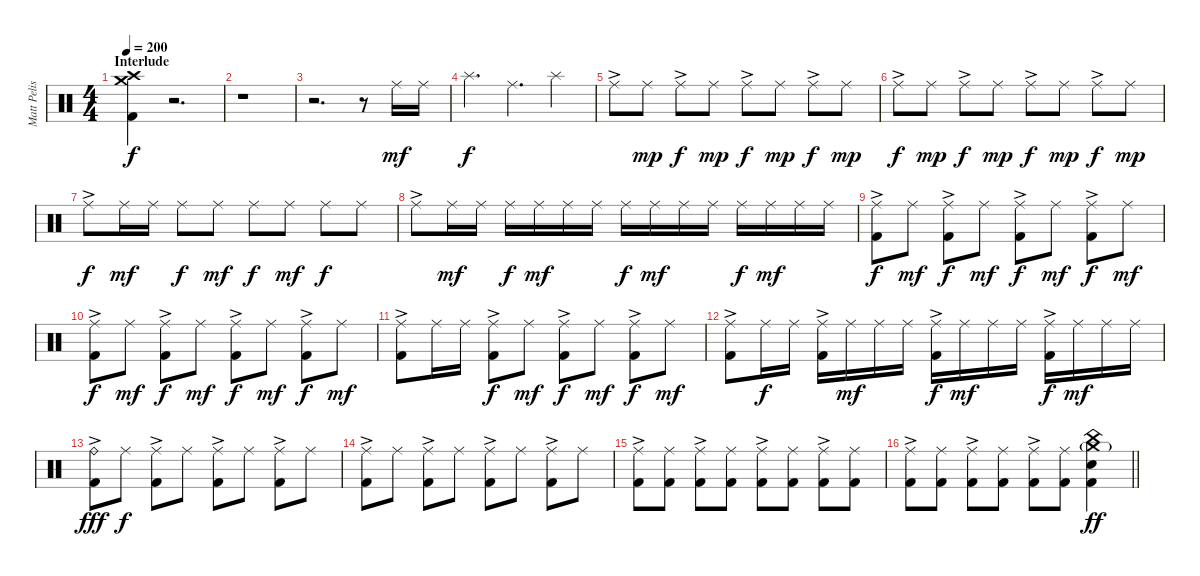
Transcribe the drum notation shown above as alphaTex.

\track ("Matt Pelissier" "Matt Pelis") {instrument percussion}
\staff {score}
\articulation defaults
\ts (4 4)
\section ("" "Interlude")
\tempo 200
\clef neutral
\ks c
("Crash high (hit)" "Crash medium (hit)" "Kick (hit) 2").4{dy f} r.2{d} |
r.1 |
r.2{d} r.8 "Ride (middle)".16{dy mf} "Ride (middle)".16 |
"Splash (hit)".4{d dy f} "Ride (middle)".4{d} "Splash (hit)".4 |
"Ride (middle)"{ac}.8 "Ride (middle)".8{dy mp} "Ride (middle)"{ac}.8{dy f} "Ride (middle)".8{dy mp} "Ride (middle)"{ac}.8{dy f} "Ride (middle)".8{dy mp} "Ride (middle)"{ac}.8{dy f} "Ride (middle)".8{dy mp} |
"Ride (middle)"{ac}.8{dy f} "Ride (middle)".8{dy mp} "Ride (middle)"{ac}.8{dy f} "Ride (middle)".8{dy mp} "Ride (middle)"{ac}.8{dy f} "Ride (middle)".8{dy mp} "Ride (middle)"{ac}.8{dy f} "Ride (middle)".8{dy mp} |
"Ride (middle)"{ac}.8{dy f} "Ride (middle)".16{dy mf} "Ride (middle)".16 "Ride (middle)".8{dy f} "Ride (middle)".8{dy mf} "Ride (middle)".8{dy f} "Ride (middle)".8{dy mf} "Ride (middle)".8{dy f} "Ride (middle)".8 |
"Ride (middle)"{ac}.8 "Ride (middle)".16{dy mf} "Ride (middle)".16 "Ride (middle)".16{dy f} "Ride (middle)".16{dy mf} "Ride (middle)".16 "Ride (middle)".16 "Ride (middle)".16{dy f} "Ride (middle)".16{dy mf} "Ride (middle)".16 "Ride (middle)".16 "Ride (middle)".16{dy f} "Ride (middle)".16{dy mf} "Ride (middle)".16 "Ride (middle)".16 |
("Ride (middle)"{ac} "Kick (hit) 2").8{dy f} "Ride (middle)".8{dy mf} ("Ride (middle)"{ac} "Kick (hit) 2").8{dy f} "Ride (middle)".8{dy mf} ("Ride (middle)"{ac} "Kick (hit) 2").8{dy f} "Ride (middle)".8{dy mf} ("Ride (middle)"{ac} "Kick (hit) 2").8{dy f} "Ride (middle)".8{dy mf} |
("Ride (middle)"{ac} "Kick (hit) 2").8{dy f} "Ride (middle)".8{dy mf} ("Ride (middle)"{ac} "Kick (hit) 2").8{dy f} "Ride (middle)".8{dy mf} ("Ride (middle)"{ac} "Kick (hit) 2").8{dy f} "Ride (middle)".8{dy mf} ("Ride (middle)"{ac} "Kick (hit) 2").8{dy f} "Ride (middle)".8{dy mf} |
("Ride (middle)"{ac} "Kick (hit) 2").8 "Ride (middle)".16 "Ride (middle)".16 ("Ride (middle)"{ac} "Kick (hit) 2").8{dy f} "Ride (middle)".8{dy mf} ("Ride (middle)"{ac} "Kick (hit) 2").8{dy f} "Ride (middle)".8{dy mf} ("Ride (middle)"{ac} "Kick (hit) 2").8{dy f} "Ride (middle)".8{dy mf} |
("Ride (middle)"{ac} "Kick (hit) 2").8 "Ride (middle)".16{dy f} "Ride (middle)".16 ("Ride (middle)"{ac} "Kick (hit) 2").16 "Ride (middle)".16{dy mf} "Ride (middle)".16 "Ride (middle)".16 ("Ride (middle)"{ac} "Kick (hit) 2").16{dy f} "Ride (middle)".16{dy mf} "Ride (middle)".16 "Ride (middle)".16 ("Ride (middle)"{ac} "Kick (hit) 2").16{dy f} "Ride (middle)".16{dy mf} "Ride (middle)".16 "Ride (middle)".16 |
("Ride (bell)"{ac} "Kick (hit) 2").8{dy fff} "Ride (middle)".8{dy f} ("Ride (middle)"{ac} "Kick (hit) 2").8 "Ride (middle)".8 ("Ride (middle)"{ac} "Kick (hit) 2").8 "Ride (middle)".8 ("Ride (middle)"{ac} "Kick (hit) 2").8 "Ride (middle)".8 |
("Ride (middle)"{ac} "Kick (hit) 2").8 "Ride (middle)".8 ("Ride (middle)"{ac} "Kick (hit) 2").8 "Ride (middle)".8 ("Ride (middle)"{ac} "Kick (hit) 2").8 "Ride (middle)".8 ("Ride (middle)"{ac} "Kick (hit) 2").8 "Ride (middle)".8 |
("Ride (middle)"{ac} "Kick (hit) 2").8 ("Ride (middle)" "Kick (hit) 2").8 ("Ride (middle)"{ac} "Kick (hit) 2").8 ("Ride (middle)" "Kick (hit) 2").8 ("Ride (middle)"{ac} "Kick (hit) 2").8 ("Ride (middle)" "Kick (hit) 2").8 ("Ride (middle)"{ac} "Kick (hit) 2").8 ("Ride (middle)" "Kick (hit) 2").8 |
\barLineRight lightlight
("Ride (middle)"{ac} "Kick (hit) 2").8 ("Ride (middle)" "Kick (hit) 2").8 ("Ride (middle)"{ac} "Kick (hit) 2").8 ("Ride (middle)" "Kick (hit) 2").8 ("Ride (middle)"{ac} "Kick (hit) 2").8 ("Ride (middle)" "Kick (hit) 2").8 ("Crash medium (hit)"{g} "China (hit)" "Snare (hit) 2" "Kick (hit) 2").4{dy ff}
